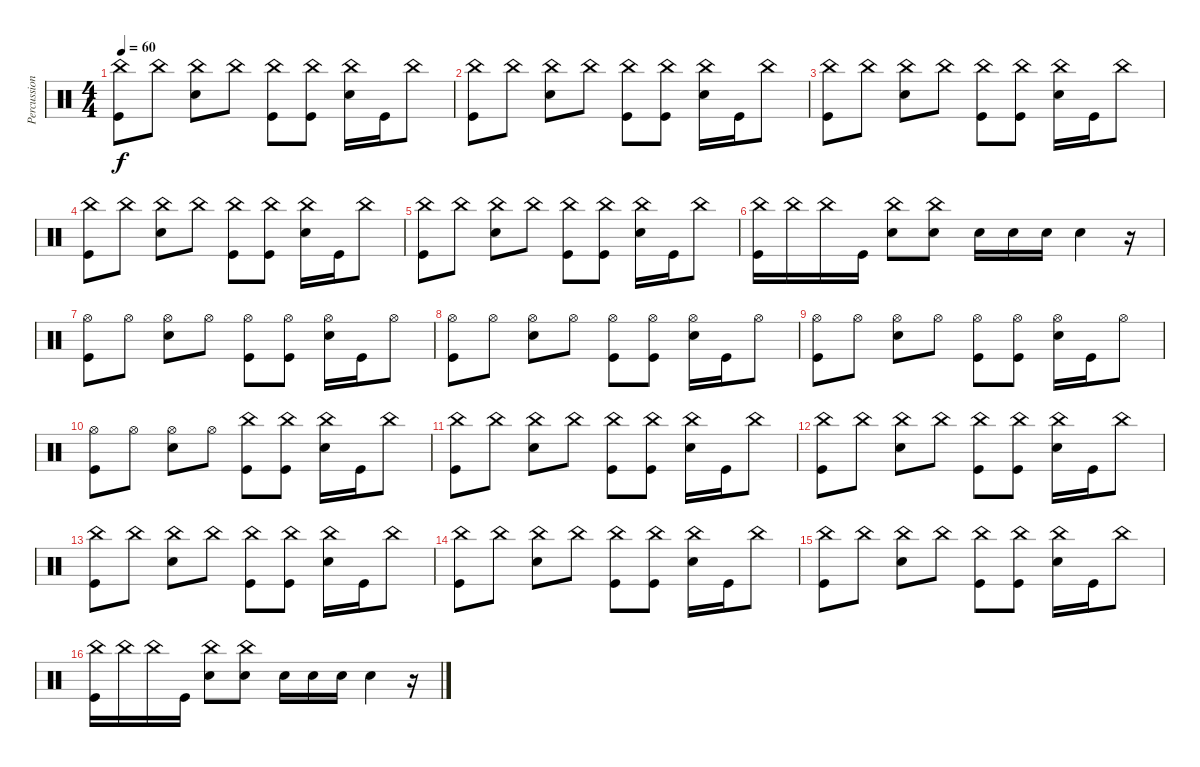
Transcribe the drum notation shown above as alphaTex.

\track ("Percussion" "Percussion") {instrument percussion}
\staff {score}
\articulation defaults
\ts (4 4)
\tempo 60
\clef neutral
\ks c
("China (hit)" "Kick (hit)").8{dy f} "China (hit)".8 ("China (hit)" "Electric Snare (hit)").8 "China (hit)".8 ("China (hit)" "Kick (hit)").8 ("China (hit)" "Kick (hit)").8 ("China (hit)" "Electric Snare (hit)").16 "Kick (hit)".16 "China (hit)".8 |
("China (hit)" "Kick (hit)").8 "China (hit)".8 ("China (hit)" "Electric Snare (hit)").8 "China (hit)".8 ("China (hit)" "Kick (hit)").8 ("China (hit)" "Kick (hit)").8 ("China (hit)" "Electric Snare (hit)").16 "Kick (hit)".16 "China (hit)".8 |
("China (hit)" "Kick (hit)").8 "China (hit)".8 ("China (hit)" "Electric Snare (hit)").8 "China (hit)".8 ("China (hit)" "Kick (hit)").8 ("China (hit)" "Kick (hit)").8 ("China (hit)" "Electric Snare (hit)").16 "Kick (hit)".16 "China (hit)".8 |
("China (hit)" "Kick (hit)").8 "China (hit)".8 ("China (hit)" "Electric Snare (hit)").8 "China (hit)".8 ("China (hit)" "Kick (hit)").8 ("China (hit)" "Kick (hit)").8 ("China (hit)" "Electric Snare (hit)").16 "Kick (hit)".16 "China (hit)".8 |
("China (hit)" "Kick (hit)").8 "China (hit)".8 ("China (hit)" "Electric Snare (hit)").8 "China (hit)".8 ("China (hit)" "Kick (hit)").8 ("China (hit)" "Kick (hit)").8 ("China (hit)" "Electric Snare (hit)").16 "Kick (hit)".16 "China (hit)".8 |
("China (hit)" "Kick (hit)").16 "China (hit)".16 "China (hit)".16 "Kick (hit)".16 ("China (hit)" "Electric Snare (hit)").8 ("China (hit)" "Electric Snare (hit)").8 "Electric Snare (hit)".16 "Electric Snare (hit)".16 "Electric Snare (hit)".16 "Electric Snare (hit)".4 r.16 |
("Hi-Hat (open)" "Kick (hit)").8 "Hi-Hat (open)".8 ("Hi-Hat (open)" "Electric Snare (hit)").8 "Hi-Hat (open)".8 ("Hi-Hat (open)" "Kick (hit)").8 ("Hi-Hat (open)" "Kick (hit)").8 ("Hi-Hat (open)" "Electric Snare (hit)").16 "Kick (hit)".16 "Hi-Hat (open)".8 |
("Hi-Hat (open)" "Kick (hit)").8 "Hi-Hat (open)".8 ("Hi-Hat (open)" "Electric Snare (hit)").8 "Hi-Hat (open)".8 ("Hi-Hat (open)" "Kick (hit)").8 ("Hi-Hat (open)" "Kick (hit)").8 ("Hi-Hat (open)" "Electric Snare (hit)").16 "Kick (hit)".16 "Hi-Hat (open)".8 |
("Hi-Hat (open)" "Kick (hit)").8 "Hi-Hat (open)".8 ("Hi-Hat (open)" "Electric Snare (hit)").8 "Hi-Hat (open)".8 ("Hi-Hat (open)" "Kick (hit)").8 ("Hi-Hat (open)" "Kick (hit)").8 ("Hi-Hat (open)" "Electric Snare (hit)").16 "Kick (hit)".16 "Hi-Hat (open)".8 |
("Hi-Hat (open)" "Kick (hit)").8 "Hi-Hat (open)".8 ("Hi-Hat (open)" "Electric Snare (hit)").8 "Hi-Hat (open)".8 ("China (hit)" "Kick (hit)").8 ("China (hit)" "Kick (hit)").8 ("China (hit)" "Electric Snare (hit)").16 "Kick (hit)".16 "China (hit)".8 |
("China (hit)" "Kick (hit)").8 "China (hit)".8 ("China (hit)" "Electric Snare (hit)").8 "China (hit)".8 ("China (hit)" "Kick (hit)").8 ("China (hit)" "Kick (hit)").8 ("China (hit)" "Electric Snare (hit)").16 "Kick (hit)".16 "China (hit)".8 |
("China (hit)" "Kick (hit)").8 "China (hit)".8 ("China (hit)" "Electric Snare (hit)").8 "China (hit)".8 ("China (hit)" "Kick (hit)").8 ("China (hit)" "Kick (hit)").8 ("China (hit)" "Electric Snare (hit)").16 "Kick (hit)".16 "China (hit)".8 |
("China (hit)" "Kick (hit)").8 "China (hit)".8 ("China (hit)" "Electric Snare (hit)").8 "China (hit)".8 ("China (hit)" "Kick (hit)").8 ("China (hit)" "Kick (hit)").8 ("China (hit)" "Electric Snare (hit)").16 "Kick (hit)".16 "China (hit)".8 |
("China (hit)" "Kick (hit)").8 "China (hit)".8 ("China (hit)" "Electric Snare (hit)").8 "China (hit)".8 ("China (hit)" "Kick (hit)").8 ("China (hit)" "Kick (hit)").8 ("China (hit)" "Electric Snare (hit)").16 "Kick (hit)".16 "China (hit)".8 |
("China (hit)" "Kick (hit)").8 "China (hit)".8 ("China (hit)" "Electric Snare (hit)").8 "China (hit)".8 ("China (hit)" "Kick (hit)").8 ("China (hit)" "Kick (hit)").8 ("China (hit)" "Electric Snare (hit)").16 "Kick (hit)".16 "China (hit)".8 |
("China (hit)" "Kick (hit)").16 "China (hit)".16 "China (hit)".16 "Kick (hit)".16 ("China (hit)" "Electric Snare (hit)").8 ("China (hit)" "Electric Snare (hit)").8 "Electric Snare (hit)".16 "Electric Snare (hit)".16 "Electric Snare (hit)".16 "Electric Snare (hit)".4 r.16
